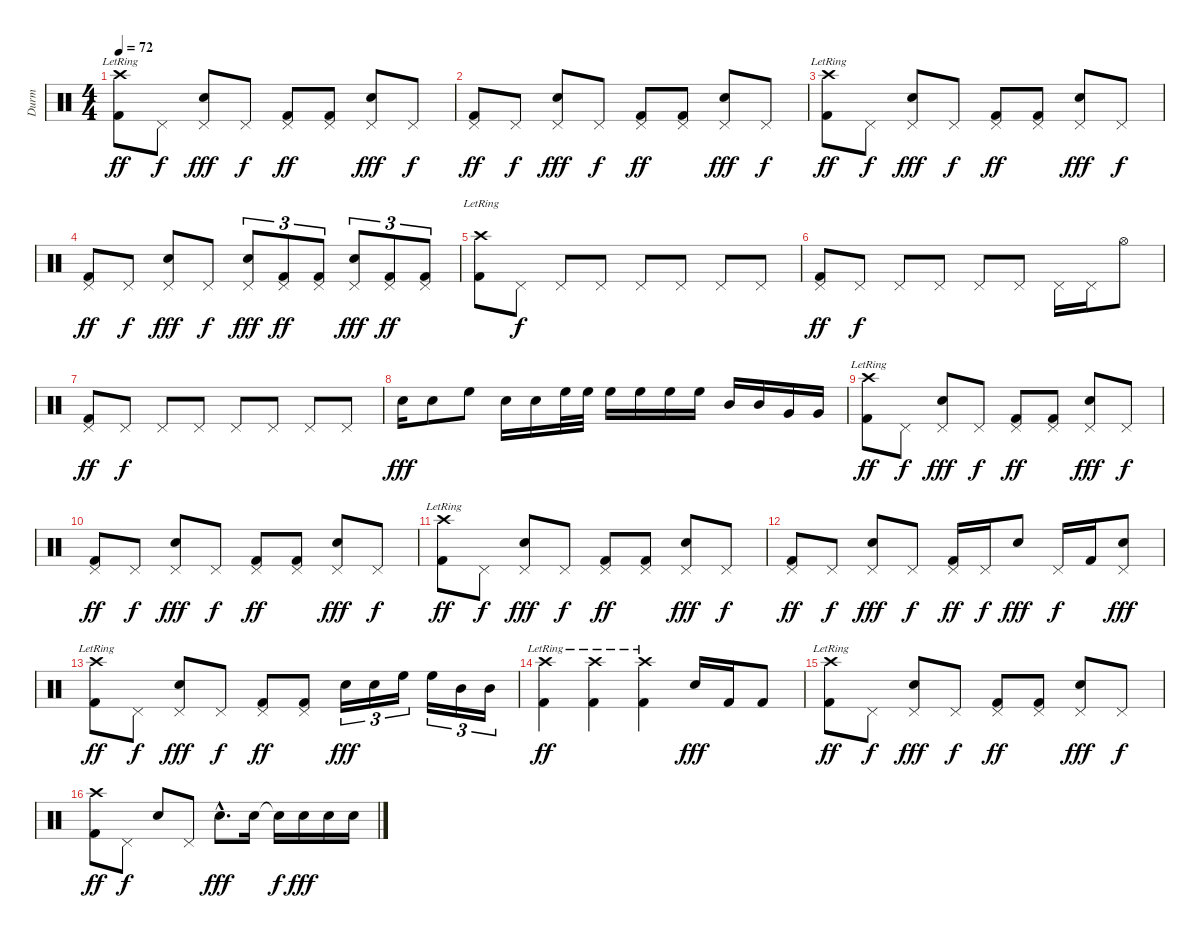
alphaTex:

\track ("Durm" "Durm") {instrument percussion}
\staff {score}
\articulation defaults
\ts (4 4)
\tempo 72
\clef neutral
\ks c
("Crash high (hit)"{lr} "Kick (hit) 2").8{dy ff} "Pedal Hi-Hat (hit)".8{dy f} ("Pedal Hi-Hat (hit)" "Electric Snare (hit)").8{dy fff} "Pedal Hi-Hat (hit)".8{dy f} ("Pedal Hi-Hat (hit)" "Kick (hit) 2").8{dy ff} ("Pedal Hi-Hat (hit)" "Kick (hit) 2").8 ("Pedal Hi-Hat (hit)" "Electric Snare (hit)").8{dy fff} "Pedal Hi-Hat (hit)".8{dy f} |
("Pedal Hi-Hat (hit)" "Kick (hit) 2").8{dy ff} "Pedal Hi-Hat (hit)".8{dy f} ("Pedal Hi-Hat (hit)" "Electric Snare (hit)").8{dy fff} "Pedal Hi-Hat (hit)".8{dy f} ("Pedal Hi-Hat (hit)" "Kick (hit) 2").8{dy ff} ("Pedal Hi-Hat (hit)" "Kick (hit) 2").8 ("Pedal Hi-Hat (hit)" "Electric Snare (hit)").8{dy fff} "Pedal Hi-Hat (hit)".8{dy f} |
("Crash high (hit)"{lr} "Kick (hit) 2").8{dy ff} "Pedal Hi-Hat (hit)".8{dy f} ("Pedal Hi-Hat (hit)" "Electric Snare (hit)").8{dy fff} "Pedal Hi-Hat (hit)".8{dy f} ("Pedal Hi-Hat (hit)" "Kick (hit) 2").8{dy ff} ("Pedal Hi-Hat (hit)" "Kick (hit) 2").8 ("Pedal Hi-Hat (hit)" "Electric Snare (hit)").8{dy fff} "Pedal Hi-Hat (hit)".8{dy f} |
("Pedal Hi-Hat (hit)" "Kick (hit) 2").8{dy ff} "Pedal Hi-Hat (hit)".8{dy f} ("Pedal Hi-Hat (hit)" "Electric Snare (hit)").8{dy fff} "Pedal Hi-Hat (hit)".8{dy f} ("Pedal Hi-Hat (hit)" "Electric Snare (hit)").8{tu (3 2) dy fff} ("Pedal Hi-Hat (hit)" "Kick (hit) 2").8{tu (3 2) dy ff} ("Pedal Hi-Hat (hit)" "Kick (hit) 2").8{tu (3 2)} ("Pedal Hi-Hat (hit)" "Electric Snare (hit)").8{tu (3 2) dy fff} ("Pedal Hi-Hat (hit)" "Kick (hit) 2").8{tu (3 2) dy ff} ("Pedal Hi-Hat (hit)" "Kick (hit) 2").8{tu (3 2)} |
("Crash high (hit)"{lr} "Kick (hit) 2").8 "Pedal Hi-Hat (hit)".8{dy f} "Pedal Hi-Hat (hit)".8 "Pedal Hi-Hat (hit)".8 "Pedal Hi-Hat (hit)".8 "Pedal Hi-Hat (hit)".8 "Pedal Hi-Hat (hit)".8 "Pedal Hi-Hat (hit)".8 |
("Pedal Hi-Hat (hit)" "Kick (hit) 2").8{dy ff} "Pedal Hi-Hat (hit)".8{dy f} "Pedal Hi-Hat (hit)".8 "Pedal Hi-Hat (hit)".8 "Pedal Hi-Hat (hit)".8 "Pedal Hi-Hat (hit)".8 "Pedal Hi-Hat (hit)".16 "Pedal Hi-Hat (hit)".16 "Hi-Hat (open)".8 |
("Pedal Hi-Hat (hit)" "Kick (hit) 2").8{dy ff} "Pedal Hi-Hat (hit)".8{dy f} "Pedal Hi-Hat (hit)".8 "Pedal Hi-Hat (hit)".8 "Pedal Hi-Hat (hit)".8 "Pedal Hi-Hat (hit)".8 "Pedal Hi-Hat (hit)".8 "Pedal Hi-Hat (hit)".8 |
"Electric Snare (hit)".16{dy fff} "Electric Snare (hit)".8 "High Floor Tom (hit)".8 "Electric Snare (hit)".16 "Electric Snare (hit)".16 "High Floor Tom (hit)".32 "High Floor Tom (hit)".32 "High Floor Tom (hit)".16 "High Floor Tom (hit)".16 "High Floor Tom (hit)".16 "High Floor Tom (hit)".16 "Mid Tom (hit)".16 "Mid Tom (hit)".16 "Very Low Tom (hit)".16 "Very Low Tom (hit)".16 |
("Crash high (hit)"{lr} "Kick (hit) 2").8{dy ff} "Pedal Hi-Hat (hit)".8{dy f} ("Pedal Hi-Hat (hit)" "Electric Snare (hit)").8{dy fff} "Pedal Hi-Hat (hit)".8{dy f} ("Pedal Hi-Hat (hit)" "Kick (hit) 2").8{dy ff} ("Pedal Hi-Hat (hit)" "Kick (hit) 2").8 ("Pedal Hi-Hat (hit)" "Electric Snare (hit)").8{dy fff} "Pedal Hi-Hat (hit)".8{dy f} |
("Pedal Hi-Hat (hit)" "Kick (hit) 2").8{dy ff} "Pedal Hi-Hat (hit)".8{dy f} ("Pedal Hi-Hat (hit)" "Electric Snare (hit)").8{dy fff} "Pedal Hi-Hat (hit)".8{dy f} ("Pedal Hi-Hat (hit)" "Kick (hit) 2").8{dy ff} ("Pedal Hi-Hat (hit)" "Kick (hit) 2").8 ("Pedal Hi-Hat (hit)" "Electric Snare (hit)").8{dy fff} "Pedal Hi-Hat (hit)".8{dy f} |
("Crash high (hit)"{lr} "Kick (hit) 2").8{dy ff} "Pedal Hi-Hat (hit)".8{dy f} ("Pedal Hi-Hat (hit)" "Electric Snare (hit)").8{dy fff} "Pedal Hi-Hat (hit)".8{dy f} ("Pedal Hi-Hat (hit)" "Kick (hit) 2").8{dy ff} ("Pedal Hi-Hat (hit)" "Kick (hit) 2").8 ("Pedal Hi-Hat (hit)" "Electric Snare (hit)").8{dy fff} "Pedal Hi-Hat (hit)".8{dy f} |
("Pedal Hi-Hat (hit)" "Kick (hit) 2").8{dy ff} "Pedal Hi-Hat (hit)".8{dy f} ("Pedal Hi-Hat (hit)" "Electric Snare (hit)").8{dy fff} "Pedal Hi-Hat (hit)".8{dy f} ("Pedal Hi-Hat (hit)" "Kick (hit) 2").16{dy ff} "Pedal Hi-Hat (hit)".16{dy f} "Electric Snare (hit)".8{dy fff} "Pedal Hi-Hat (hit)".16{dy f} "Kick (hit) 2".16 ("Pedal Hi-Hat (hit)" "Electric Snare (hit)").8{dy fff} |
("Crash high (hit)"{lr} "Kick (hit) 2").8{dy ff} "Pedal Hi-Hat (hit)".8{dy f} ("Pedal Hi-Hat (hit)" "Electric Snare (hit)").8{dy fff} "Pedal Hi-Hat (hit)".8{dy f} ("Pedal Hi-Hat (hit)" "Kick (hit) 2").8{dy ff} ("Pedal Hi-Hat (hit)" "Kick (hit) 2").8 "Electric Snare (hit)".16{tu (3 2) dy fff} "Electric Snare (hit)".16{tu (3 2)} "High Floor Tom (hit)".16{tu (3 2)} "High Floor Tom (hit)".16{tu (3 2)} "Mid Tom (hit)".16{tu (3 2)} "Mid Tom (hit)".16{tu (3 2)} |
("Crash high (hit)"{lr} "Kick (hit) 2").4{dy ff} ("Crash high (hit)"{lr} "Kick (hit) 2").4 ("Crash high (hit)"{lr} "Kick (hit) 2").4 "Electric Snare (hit)".16{dy fff} "Kick (hit) 2".16 "Kick (hit) 2".8 |
("Crash high (hit)"{lr} "Kick (hit) 2").8{dy ff} "Pedal Hi-Hat (hit)".8{dy f} ("Pedal Hi-Hat (hit)" "Electric Snare (hit)").8{dy fff} "Pedal Hi-Hat (hit)".8{dy f} ("Pedal Hi-Hat (hit)" "Kick (hit) 2").8{dy ff} ("Pedal Hi-Hat (hit)" "Kick (hit) 2").8 ("Pedal Hi-Hat (hit)" "Electric Snare (hit)").8{dy fff} "Pedal Hi-Hat (hit)".8{dy f} |
("Crash high (hit)" "Kick (hit) 2").8{dy ff} "Pedal Hi-Hat (hit)".8{dy f} "Electric Snare (hit)".8 "Pedal Hi-Hat (hit)".8 "Electric Snare (hit)"{hac}.8{d dy fff} "Electric Snare (hit)".16 "Snare (hit)"{t}.16{dy f} "Electric Snare (hit)".16{dy fff} "Electric Snare (hit)".16 "Electric Snare (hit)".16
